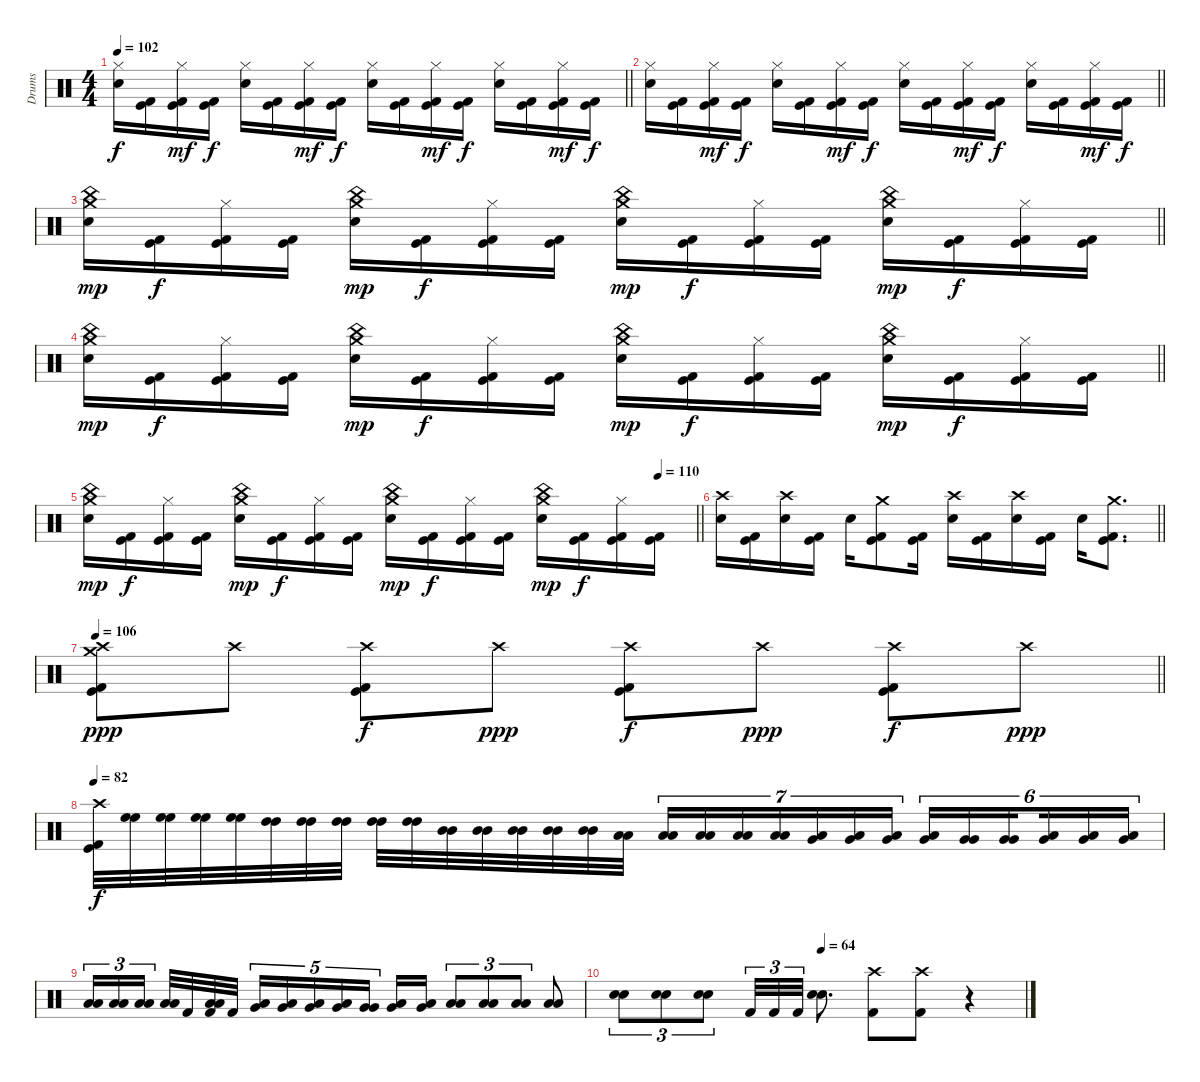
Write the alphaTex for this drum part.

\track ("Drums" "Drums") {instrument percussion}
\staff {score}
\articulation defaults
\ts (4 4)
\tempo 102
\clef neutral
\barLineRight lightlight
\ks c
("Hi-Hat (closed)" "Electric Snare (hit)").16{dy f} ("Kick (hit)" "Kick (hit) 2").16 ("Hi-Hat (closed)" "Kick (hit)" "Kick (hit) 2").16{dy mf} ("Kick (hit)" "Kick (hit) 2").16{dy f} ("Hi-Hat (closed)" "Electric Snare (hit)").16 ("Kick (hit)" "Kick (hit) 2").16 ("Hi-Hat (closed)" "Kick (hit)" "Kick (hit) 2").16{dy mf} ("Kick (hit)" "Kick (hit) 2").16{dy f} ("Hi-Hat (closed)" "Electric Snare (hit)").16 ("Kick (hit)" "Kick (hit) 2").16 ("Hi-Hat (closed)" "Kick (hit)" "Kick (hit) 2").16{dy mf} ("Kick (hit)" "Kick (hit) 2").16{dy f} ("Hi-Hat (closed)" "Electric Snare (hit)").16 ("Kick (hit)" "Kick (hit) 2").16 ("Hi-Hat (closed)" "Kick (hit)" "Kick (hit) 2").16{dy mf} ("Kick (hit)" "Kick (hit) 2").16{dy f} |
\barLineRight lightlight
("Hi-Hat (closed)" "Electric Snare (hit)").16 ("Kick (hit)" "Kick (hit) 2").16 ("Hi-Hat (closed)" "Kick (hit)" "Kick (hit) 2").16{dy mf} ("Kick (hit)" "Kick (hit) 2").16{dy f} ("Hi-Hat (closed)" "Electric Snare (hit)").16 ("Kick (hit)" "Kick (hit) 2").16 ("Hi-Hat (closed)" "Kick (hit)" "Kick (hit) 2").16{dy mf} ("Kick (hit)" "Kick (hit) 2").16{dy f} ("Hi-Hat (closed)" "Electric Snare (hit)").16 ("Kick (hit)" "Kick (hit) 2").16 ("Hi-Hat (closed)" "Kick (hit)" "Kick (hit) 2").16{dy mf} ("Kick (hit)" "Kick (hit) 2").16{dy f} ("Hi-Hat (closed)" "Electric Snare (hit)").16 ("Kick (hit)" "Kick (hit) 2").16 ("Hi-Hat (closed)" "Kick (hit)" "Kick (hit) 2").16{dy mf} ("Kick (hit)" "Kick (hit) 2").16{dy f} |
\barLineRight lightlight
("Crash medium (hit)" "China (hit)" "Electric Snare (hit)").16{dy mp} ("Kick (hit)" "Kick (hit) 2").16{dy f} ("Hi-Hat (closed)" "Kick (hit)" "Kick (hit) 2").16 ("Kick (hit)" "Kick (hit) 2").16 ("Crash medium (hit)" "China (hit)" "Electric Snare (hit)").16{dy mp} ("Kick (hit)" "Kick (hit) 2").16{dy f} ("Hi-Hat (closed)" "Kick (hit)" "Kick (hit) 2").16 ("Kick (hit)" "Kick (hit) 2").16 ("Crash medium (hit)" "China (hit)" "Electric Snare (hit)").16{dy mp} ("Kick (hit)" "Kick (hit) 2").16{dy f} ("Hi-Hat (closed)" "Kick (hit)" "Kick (hit) 2").16 ("Kick (hit)" "Kick (hit) 2").16 ("Crash medium (hit)" "China (hit)" "Electric Snare (hit)").16{dy mp} ("Kick (hit)" "Kick (hit) 2").16{dy f} ("Hi-Hat (closed)" "Kick (hit)" "Kick (hit) 2").16 ("Kick (hit)" "Kick (hit) 2").16 |
\barLineRight lightlight
("Crash medium (hit)" "China (hit)" "Electric Snare (hit)").16{dy mp} ("Kick (hit)" "Kick (hit) 2").16{dy f} ("Hi-Hat (closed)" "Kick (hit)" "Kick (hit) 2").16 ("Kick (hit)" "Kick (hit) 2").16 ("Crash medium (hit)" "China (hit)" "Electric Snare (hit)").16{dy mp} ("Kick (hit)" "Kick (hit) 2").16{dy f} ("Hi-Hat (closed)" "Kick (hit)" "Kick (hit) 2").16 ("Kick (hit)" "Kick (hit) 2").16 ("Crash medium (hit)" "China (hit)" "Electric Snare (hit)").16{dy mp} ("Kick (hit)" "Kick (hit) 2").16{dy f} ("Hi-Hat (closed)" "Kick (hit)" "Kick (hit) 2").16 ("Kick (hit)" "Kick (hit) 2").16 ("Crash medium (hit)" "China (hit)" "Electric Snare (hit)").16{dy mp} ("Kick (hit)" "Kick (hit) 2").16{dy f} ("Hi-Hat (closed)" "Kick (hit)" "Kick (hit) 2").16 ("Kick (hit)" "Kick (hit) 2").16 |
\tempo (110 0.9375)
\barLineRight lightlight
("Crash medium (hit)" "China (hit)" "Electric Snare (hit)").16{dy mp} ("Kick (hit)" "Kick (hit) 2").16{dy f} ("Hi-Hat (closed)" "Kick (hit)" "Kick (hit) 2").16 ("Kick (hit)" "Kick (hit) 2").16 ("Crash medium (hit)" "China (hit)" "Electric Snare (hit)").16{dy mp} ("Kick (hit)" "Kick (hit) 2").16{dy f} ("Hi-Hat (closed)" "Kick (hit)" "Kick (hit) 2").16 ("Kick (hit)" "Kick (hit) 2").16 ("Crash medium (hit)" "China (hit)" "Electric Snare (hit)").16{dy mp} ("Kick (hit)" "Kick (hit) 2").16{dy f} ("Hi-Hat (closed)" "Kick (hit)" "Kick (hit) 2").16 ("Kick (hit)" "Kick (hit) 2").16 ("Crash medium (hit)" "China (hit)" "Electric Snare (hit)").16{dy mp} ("Kick (hit)" "Kick (hit) 2").16{dy f} ("Hi-Hat (closed)" "Kick (hit)" "Kick (hit) 2").16 ("Kick (hit)" "Kick (hit) 2").16 |
\barLineRight lightlight
("Crash high (hit)" "Electric Snare (hit)").16 ("Kick (hit)" "Kick (hit) 2").16 ("Crash high (hit)" "Electric Snare (hit)").16 ("Kick (hit)" "Kick (hit) 2").16 "Electric Snare (hit)".16 ("Crash medium (hit)" "Kick (hit)" "Kick (hit) 2").8 ("Kick (hit)" "Kick (hit) 2").16 ("Crash high (hit)" "Electric Snare (hit)").16 ("Kick (hit)" "Kick (hit) 2").16 ("Crash high (hit)" "Electric Snare (hit)").16 ("Kick (hit)" "Kick (hit) 2").16 "Electric Snare (hit)".16 ("Crash medium (hit)" "Kick (hit)" "Kick (hit) 2").8{d} |
\tempo 106
\barLineRight lightlight
("Crash high (hit)" "Crash medium (hit)" "Kick (hit)" "Kick (hit) 2").8{dy ppp} "Crash high (hit)".8 ("Crash high (hit)" "Kick (hit)" "Kick (hit) 2").8{dy f} "Crash high (hit)".8{dy ppp} ("Crash high (hit)" "Kick (hit)" "Kick (hit) 2").8{dy f} "Crash high (hit)".8{dy ppp} ("Crash high (hit)" "Kick (hit)" "Kick (hit) 2").8{dy f} "Crash high (hit)".8{dy ppp} |
\tempo 82
("Crash high (hit)" "Kick (hit)" "Kick (hit) 2").32{dy f} ("High Floor Tom (hit)" "High Floor Tom (hit)").32 ("High Floor Tom (hit)" "High Floor Tom (hit)").32 ("High Floor Tom (hit)" "High Floor Tom (hit)").32 ("High Floor Tom (hit)" "High Floor Tom (hit)").32 ("High Tom (hit)" "High Tom (hit)").32 ("High Tom (hit)" "High Tom (hit)").32 ("High Tom (hit)" "High Tom (hit)").32 ("High Tom (hit)" "High Tom (hit)").32 ("High Tom (hit)" "High Tom (hit)").32 ("Mid Tom (hit)" "Mid Tom (hit)").32 ("Mid Tom (hit)" "Mid Tom (hit)").32 ("Mid Tom (hit)" "Mid Tom (hit)").32 ("Mid Tom (hit)" "Mid Tom (hit)").32 ("Mid Tom (hit)" "Mid Tom (hit)").32 ("Low Tom (hit)" "Low Tom (hit)").32 ("Low Tom (hit)" "Low Tom (hit)").16{tu (7 4)} ("Low Tom (hit)" "Low Tom (hit)").16{tu (7 4)} ("Low Tom (hit)" "Low Tom (hit)").16{tu (7 4)} ("Low Tom (hit)" "Low Tom (hit)").16{tu (7 4)} ("Low Tom (hit)" "Very Low Tom (hit)").16{tu (7 4)} ("Low Tom (hit)" "Very Low Tom (hit)").16{tu (7 4)} ("Low Tom (hit)" "Very Low Tom (hit)").16{tu (7 4)} ("Low Tom (hit)" "Very Low Tom (hit)").16{tu (6 4)} ("Very Low Tom (hit)" "Very Low Tom (hit)").16{tu (6 4)} ("Very Low Tom (hit)" "Very Low Tom (hit)").16{tu (6 4) beam splitsecondary} ("Very Low Tom (hit)" "Low Floor Tom (hit)").16{tu (6 4)} ("Very Low Tom (hit)" "Low Floor Tom (hit)").16{tu (6 4)} ("Very Low Tom (hit)" "Low Floor Tom (hit)").16{tu (6 4)} |
("Low Tom (hit)" "Low Tom (hit)").16{tu (3 2)} ("Low Tom (hit)" "Low Tom (hit)").16{tu (3 2)} ("Low Tom (hit)" "Low Tom (hit)").16{tu (3 2) beam splitsecondary} ("Low Tom (hit)" "Low Tom (hit)").32 "Kick (hit) 2".32 ("Low Tom (hit)" "Low Tom (hit)" "Kick (hit) 2").32 "Kick (hit) 2".32 ("Low Tom (hit)" "Very Low Tom (hit)").16{tu (5 4)} ("Low Tom (hit)" "Very Low Tom (hit)").16{tu (5 4)} ("Low Tom (hit)" "Very Low Tom (hit)").16{tu (5 4)} ("Low Tom (hit)" "Very Low Tom (hit)").16{tu (5 4)} ("Very Low Tom (hit)" "Very Low Tom (hit)").16{tu (5 4)} ("Very Low Tom (hit)" "Low Floor Tom (hit)").16 ("Very Low Tom (hit)" "Low Floor Tom (hit)").16 ("Low Floor Tom (hit)" "Low Floor Tom (hit)").8{tu (3 2)} ("Low Floor Tom (hit)" "Low Floor Tom (hit)").8{tu (3 2)} ("Low Floor Tom (hit)" "Low Floor Tom (hit)").8{tu (3 2)} ("Low Floor Tom (hit)" "Low Floor Tom (hit)").8 |
\tempo (64 0.5)
("Electric Snare (hit)" "Electric Snare (hit)").8{tu (3 2) bd 240} ("Electric Snare (hit)" "Electric Snare (hit)").8{tu (3 2) bd 240} ("Electric Snare (hit)" "Electric Snare (hit)").8{tu (3 2) bd 240} "Kick (hit) 2".32{tu (3 2)} "Kick (hit) 2".32{tu (3 2)} "Kick (hit) 2".32{tu (3 2)} ("Electric Snare (hit)" "Electric Snare (hit)").8{d bd 120} ("Crash high (hit)" "Kick (hit) 2").8 ("Crash high (hit)" "Kick (hit) 2").8 r.4
